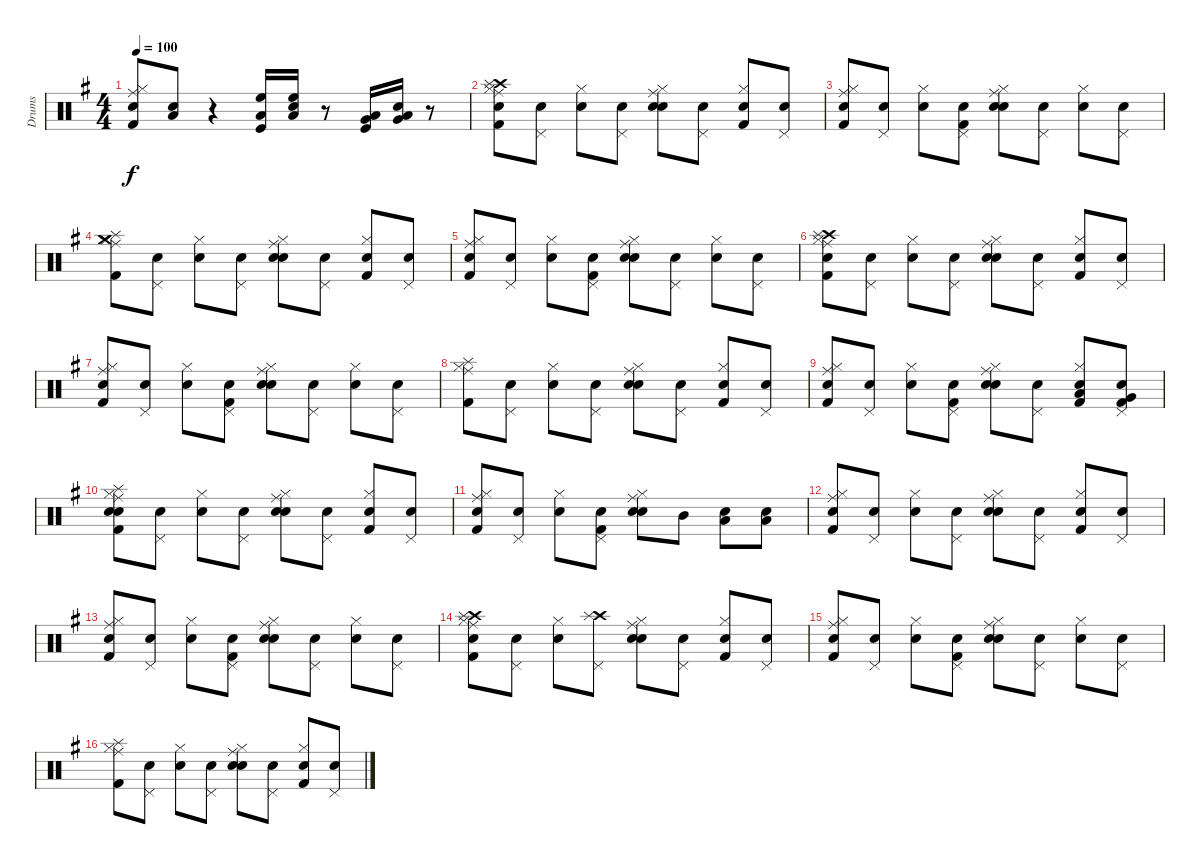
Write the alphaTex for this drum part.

\track ("Drums" "Drums") {instrument percussion}
\staff {score}
\articulation defaults
\ts (4 4)
\tempo 100
\clef neutral
\ks g
("Snare (hit)" "Ride (middle)" "Hi-Hat (closed)" "Kick (hit) 2").8{dy f} ("Snare (hit)" "Low Tom (hit)").8 r.4 ("High Floor Tom (hit)" "Kick (hit)" "Low Tom (hit)").16 ("Snare (hit)" "High Floor Tom (hit)" "Low Tom (hit)").16 r.8 ("Very Low Tom (hit)" "Kick (hit)" "Low Tom (hit)").16 ("Snare (hit)" "Very Low Tom (hit)" "Low Tom (hit)").16 r.8 |
("Ride (middle)" "Hi-Hat (closed)" "Kick (hit) 2" "Snare (hit) 2" "Crash high (hit)" "Splash (hit)").8 ("Snare (hit)" "Pedal Hi-Hat (hit)").8 ("Snare (hit)" "Hi-Hat (closed)").8 ("Snare (hit)" "Pedal Hi-Hat (hit)").8 ("Snare (hit)" "Ride (middle)" "Hi-Hat (closed)" "Snare (hit) 2").8 ("Snare (hit)" "Pedal Hi-Hat (hit)").8 ("Snare (hit)" "Hi-Hat (closed)" "Kick (hit) 2").8 ("Snare (hit)" "Pedal Hi-Hat (hit)").8 |
("Snare (hit)" "Ride (middle)" "Hi-Hat (closed)" "Kick (hit) 2").8 ("Snare (hit)" "Pedal Hi-Hat (hit)").8 ("Snare (hit)" "Hi-Hat (closed)").8 ("Snare (hit)" "Pedal Hi-Hat (hit)" "Kick (hit) 2").8 ("Snare (hit)" "Ride (middle)" "Hi-Hat (closed)" "Snare (hit) 2").8 ("Snare (hit)" "Pedal Hi-Hat (hit)").8 ("Snare (hit)" "Hi-Hat (closed)").8 ("Snare (hit)" "Pedal Hi-Hat (hit)").8 |
("Crash medium (hit)" "Splash (hit)" "Kick (hit) 2" "Ride (middle)" "Hi-Hat (closed)").8 ("Snare (hit)" "Pedal Hi-Hat (hit)").8 ("Snare (hit)" "Hi-Hat (closed)").8 ("Snare (hit)" "Pedal Hi-Hat (hit)").8 ("Snare (hit)" "Ride (middle)" "Hi-Hat (closed)" "Snare (hit) 2").8 ("Snare (hit)" "Pedal Hi-Hat (hit)").8 ("Snare (hit)" "Hi-Hat (closed)" "Kick (hit) 2").8 ("Snare (hit)" "Pedal Hi-Hat (hit)").8 |
("Snare (hit)" "Ride (middle)" "Hi-Hat (closed)" "Kick (hit) 2").8 ("Snare (hit)" "Pedal Hi-Hat (hit)").8 ("Snare (hit)" "Hi-Hat (closed)").8 ("Snare (hit)" "Pedal Hi-Hat (hit)" "Kick (hit) 2").8 ("Snare (hit)" "Ride (middle)" "Hi-Hat (closed)" "Snare (hit) 2").8 ("Snare (hit)" "Pedal Hi-Hat (hit)").8 ("Snare (hit)" "Hi-Hat (closed)").8 ("Snare (hit)" "Pedal Hi-Hat (hit)").8 |
("Snare (hit)" "Hi-Hat (closed)" "Ride (middle)" "Kick (hit) 2" "Crash high (hit)" "Splash (hit)").8 ("Snare (hit)" "Pedal Hi-Hat (hit)").8 ("Snare (hit)" "Hi-Hat (closed)").8 ("Snare (hit)" "Pedal Hi-Hat (hit)").8 ("Snare (hit)" "Ride (middle)" "Hi-Hat (closed)" "Snare (hit) 2").8 ("Snare (hit)" "Pedal Hi-Hat (hit)").8 ("Snare (hit)" "Hi-Hat (closed)" "Kick (hit) 2").8 ("Snare (hit)" "Pedal Hi-Hat (hit)").8 |
("Snare (hit)" "Ride (middle)" "Hi-Hat (closed)" "Kick (hit) 2").8 ("Snare (hit)" "Pedal Hi-Hat (hit)").8 ("Snare (hit)" "Hi-Hat (closed)").8 ("Snare (hit)" "Pedal Hi-Hat (hit)" "Kick (hit) 2").8 ("Snare (hit)" "Ride (middle)" "Hi-Hat (closed)" "Snare (hit) 2").8 ("Snare (hit)" "Pedal Hi-Hat (hit)").8 ("Snare (hit)" "Hi-Hat (closed)").8 ("Snare (hit)" "Pedal Hi-Hat (hit)").8 |
("Splash (hit)" "Kick (hit) 2" "Ride (middle)" "Hi-Hat (closed)").8 ("Snare (hit)" "Pedal Hi-Hat (hit)").8 ("Snare (hit)" "Hi-Hat (closed)").8 ("Snare (hit)" "Pedal Hi-Hat (hit)").8 ("Snare (hit)" "Ride (middle)" "Hi-Hat (closed)" "Snare (hit) 2").8 ("Snare (hit)" "Pedal Hi-Hat (hit)").8 ("Snare (hit)" "Hi-Hat (closed)" "Kick (hit) 2").8 ("Snare (hit)" "Pedal Hi-Hat (hit)").8 |
("Snare (hit)" "Ride (middle)" "Hi-Hat (closed)" "Kick (hit) 2").8 ("Snare (hit)" "Pedal Hi-Hat (hit)").8 ("Snare (hit)" "Hi-Hat (closed)").8 ("Snare (hit)" "Pedal Hi-Hat (hit)" "Kick (hit) 2").8 ("Snare (hit)" "Ride (middle)" "Hi-Hat (closed)" "Snare (hit) 2").8 ("Snare (hit)" "Pedal Hi-Hat (hit)").8 ("Snare (hit)" "Kick (hit) 2" "Low Tom (hit)" "Hi-Hat (closed)").8 ("Snare (hit)" "Very Low Tom (hit)" "Kick (hit) 2" "Pedal Hi-Hat (hit)").8 |
("Snare (hit)" "Ride (middle)" "Hi-Hat (closed)" "Kick (hit) 2" "Snare (hit) 2" "Splash (hit)").8 ("Snare (hit)" "Pedal Hi-Hat (hit)").8 ("Snare (hit)" "Hi-Hat (closed)").8 ("Snare (hit)" "Pedal Hi-Hat (hit)").8 ("Snare (hit)" "Ride (middle)" "Hi-Hat (closed)" "Snare (hit) 2").8 ("Snare (hit)" "Pedal Hi-Hat (hit)").8 ("Snare (hit)" "Hi-Hat (closed)" "Kick (hit) 2").8 ("Snare (hit)" "Pedal Hi-Hat (hit)").8 |
("Snare (hit)" "Ride (middle)" "Hi-Hat (closed)" "Kick (hit) 2").8 ("Snare (hit)" "Pedal Hi-Hat (hit)").8 ("Snare (hit)" "Hi-Hat (closed)").8 ("Snare (hit)" "Pedal Hi-Hat (hit)" "Kick (hit) 2").8 ("Snare (hit)" "Ride (middle)" "Hi-Hat (closed)" "Snare (hit) 2").8 "Mid Tom (hit)".8 ("Snare (hit)" "Low Tom (hit)").8 ("Snare (hit)" "Low Tom (hit)").8 |
("Snare (hit)" "Kick (hit) 2" "Ride (middle)" "Hi-Hat (closed)").8 ("Snare (hit)" "Pedal Hi-Hat (hit)").8 ("Snare (hit)" "Hi-Hat (closed)").8 ("Snare (hit)" "Pedal Hi-Hat (hit)").8 ("Snare (hit)" "Ride (middle)" "Hi-Hat (closed)" "Snare (hit) 2").8 ("Snare (hit)" "Pedal Hi-Hat (hit)").8 ("Snare (hit)" "Hi-Hat (closed)" "Kick (hit) 2").8 ("Snare (hit)" "Pedal Hi-Hat (hit)").8 |
("Snare (hit)" "Ride (middle)" "Hi-Hat (closed)" "Kick (hit) 2").8 ("Snare (hit)" "Pedal Hi-Hat (hit)").8 ("Snare (hit)" "Hi-Hat (closed)").8 ("Snare (hit)" "Pedal Hi-Hat (hit)" "Kick (hit) 2").8 ("Snare (hit)" "Ride (middle)" "Hi-Hat (closed)" "Snare (hit) 2").8 ("Snare (hit)" "Pedal Hi-Hat (hit)").8 ("Snare (hit)" "Hi-Hat (closed)").8 ("Snare (hit)" "Pedal Hi-Hat (hit)").8 |
("Snare (hit)" "Hi-Hat (closed)" "Ride (middle)" "Kick (hit) 2" "Crash high (hit)" "Splash (hit)").8 ("Snare (hit)" "Pedal Hi-Hat (hit)").8 ("Snare (hit)" "Hi-Hat (closed)").8 ("Crash high (hit)" "Splash (hit)" "Pedal Hi-Hat (hit)").8 ("Snare (hit)" "Ride (middle)" "Hi-Hat (closed)" "Snare (hit) 2").8 ("Snare (hit)" "Pedal Hi-Hat (hit)").8 ("Snare (hit)" "Hi-Hat (closed)" "Kick (hit) 2").8 ("Snare (hit)" "Pedal Hi-Hat (hit)").8 |
("Snare (hit)" "Ride (middle)" "Hi-Hat (closed)" "Kick (hit) 2").8 ("Snare (hit)" "Pedal Hi-Hat (hit)").8 ("Snare (hit)" "Hi-Hat (closed)").8 ("Snare (hit)" "Pedal Hi-Hat (hit)" "Kick (hit) 2").8 ("Snare (hit)" "Ride (middle)" "Hi-Hat (closed)" "Snare (hit) 2").8 ("Snare (hit)" "Pedal Hi-Hat (hit)").8 ("Snare (hit)" "Hi-Hat (closed)").8 ("Snare (hit)" "Pedal Hi-Hat (hit)").8 |
("Splash (hit)" "Kick (hit) 2" "Ride (middle)" "Hi-Hat (closed)").8 ("Snare (hit)" "Pedal Hi-Hat (hit)").8 ("Snare (hit)" "Hi-Hat (closed)").8 ("Snare (hit)" "Pedal Hi-Hat (hit)").8 ("Snare (hit)" "Ride (middle)" "Hi-Hat (closed)" "Snare (hit) 2").8 ("Snare (hit)" "Pedal Hi-Hat (hit)").8 ("Snare (hit)" "Hi-Hat (closed)" "Kick (hit) 2").8 ("Snare (hit)" "Pedal Hi-Hat (hit)").8
